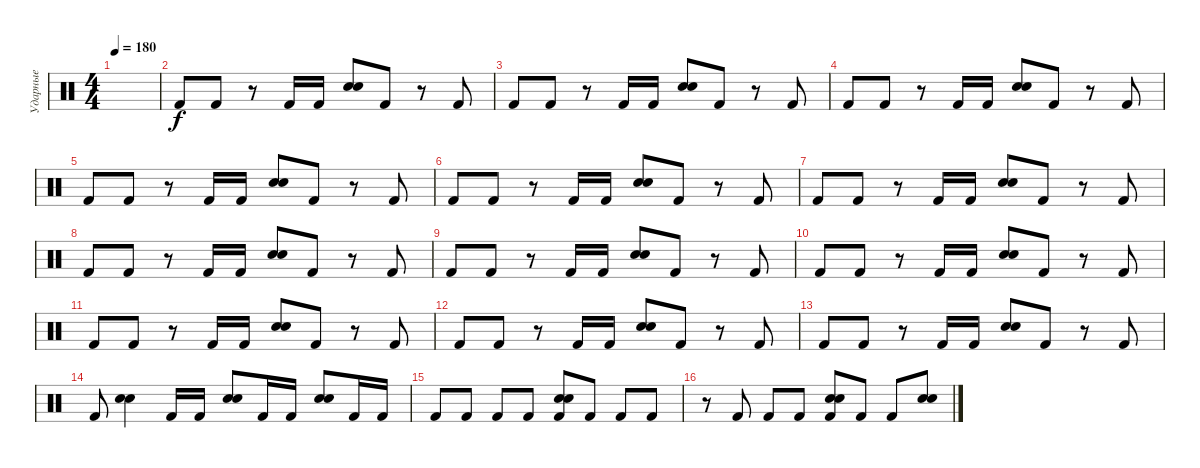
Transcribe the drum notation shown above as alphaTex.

\track ("Ударные" "Ударные") {instrument percussion}
\staff {score}
\articulation defaults
\ts (4 4)
\tempo 180
\clef neutral
\ks c
|
"Kick (hit) 2".8 "Kick (hit) 2".8 r.8 "Kick (hit) 2".16 "Kick (hit) 2".16 ("Snare (hit) 2" "Electric Snare (hit)").8 "Kick (hit) 2".8 r.8 "Kick (hit) 2".8 |
"Kick (hit) 2".8 "Kick (hit) 2".8 r.8 "Kick (hit) 2".16 "Kick (hit) 2".16 ("Snare (hit) 2" "Electric Snare (hit)").8 "Kick (hit) 2".8 r.8 "Kick (hit) 2".8 |
"Kick (hit) 2".8 "Kick (hit) 2".8 r.8 "Kick (hit) 2".16 "Kick (hit) 2".16 ("Snare (hit) 2" "Electric Snare (hit)").8 "Kick (hit) 2".8 r.8 "Kick (hit) 2".8 |
"Kick (hit) 2".8 "Kick (hit) 2".8 r.8 "Kick (hit) 2".16 "Kick (hit) 2".16 ("Snare (hit) 2" "Electric Snare (hit)").8 "Kick (hit) 2".8 r.8 "Kick (hit) 2".8 |
"Kick (hit) 2".8 "Kick (hit) 2".8 r.8 "Kick (hit) 2".16 "Kick (hit) 2".16 ("Snare (hit) 2" "Electric Snare (hit)").8 "Kick (hit) 2".8 r.8 "Kick (hit) 2".8 |
"Kick (hit) 2".8 "Kick (hit) 2".8 r.8 "Kick (hit) 2".16 "Kick (hit) 2".16 ("Snare (hit) 2" "Electric Snare (hit)").8 "Kick (hit) 2".8 r.8 "Kick (hit) 2".8 |
"Kick (hit) 2".8 "Kick (hit) 2".8 r.8 "Kick (hit) 2".16 "Kick (hit) 2".16 ("Snare (hit) 2" "Electric Snare (hit)").8 "Kick (hit) 2".8 r.8 "Kick (hit) 2".8 |
"Kick (hit) 2".8 "Kick (hit) 2".8 r.8 "Kick (hit) 2".16 "Kick (hit) 2".16 ("Snare (hit) 2" "Electric Snare (hit)").8 "Kick (hit) 2".8 r.8 "Kick (hit) 2".8 |
"Kick (hit) 2".8 "Kick (hit) 2".8 r.8 "Kick (hit) 2".16 "Kick (hit) 2".16 ("Snare (hit) 2" "Electric Snare (hit)").8 "Kick (hit) 2".8 r.8 "Kick (hit) 2".8 |
"Kick (hit) 2".8 "Kick (hit) 2".8 r.8 "Kick (hit) 2".16 "Kick (hit) 2".16 ("Snare (hit) 2" "Electric Snare (hit)").8 "Kick (hit) 2".8 r.8 "Kick (hit) 2".8 |
"Kick (hit) 2".8 "Kick (hit) 2".8 r.8 "Kick (hit) 2".16 "Kick (hit) 2".16 ("Snare (hit) 2" "Electric Snare (hit)").8 "Kick (hit) 2".8 r.8 "Kick (hit) 2".8 |
"Kick (hit) 2".8 "Kick (hit) 2".8 r.8 "Kick (hit) 2".16 "Kick (hit) 2".16 ("Snare (hit) 2" "Electric Snare (hit)").8 "Kick (hit) 2".8 r.8 "Kick (hit) 2".8 |
"Kick (hit) 2".8 ("Snare (hit) 2" "Electric Snare (hit)").4 "Kick (hit) 2".16 "Kick (hit) 2".16 ("Snare (hit) 2" "Electric Snare (hit)").8 "Kick (hit) 2".16 "Kick (hit) 2".16 ("Snare (hit) 2" "Electric Snare (hit)").8 "Kick (hit) 2".16 "Kick (hit) 2".16 |
"Kick (hit) 2".8 "Kick (hit) 2".8 "Kick (hit) 2".8 "Kick (hit) 2".8 ("Electric Snare (hit)" "Snare (hit) 2" "Kick (hit) 2").8 "Kick (hit) 2".8 "Kick (hit) 2".8 "Kick (hit) 2".8 |
r.8 "Kick (hit) 2".8 "Kick (hit) 2".8 "Kick (hit) 2".8 ("Electric Snare (hit)" "Snare (hit) 2" "Kick (hit) 2").8 "Kick (hit) 2".8 "Kick (hit) 2".8 ("Electric Snare (hit)" "Snare (hit) 2").8
